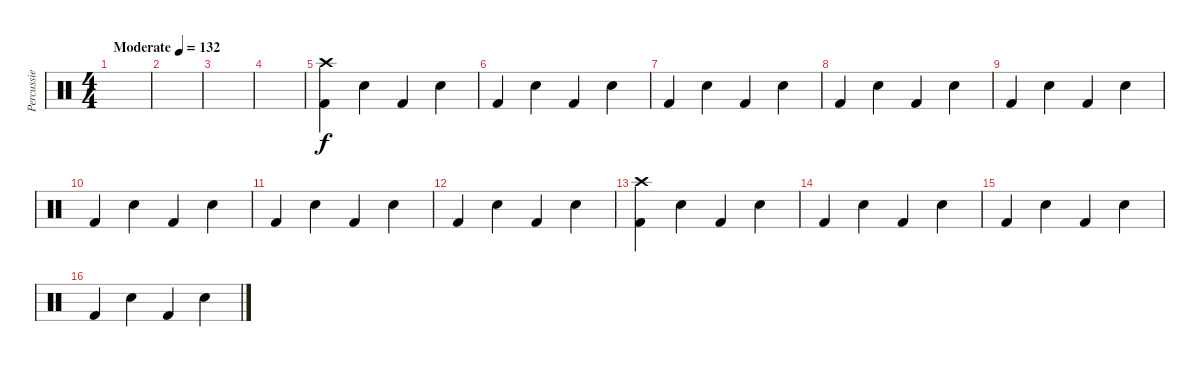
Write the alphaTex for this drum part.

\track ("Percussie" "Percussie") {instrument percussion}
\staff {score}
\articulation defaults
\ts (4 4)
\tempo (132 "Moderate")
\clef neutral
\ks c
|
|
|
|
("Crash high (hit)" "Kick (hit) 2").4 "Electric Snare (hit)".4 "Kick (hit) 2".4 "Electric Snare (hit)".4 |
"Kick (hit) 2".4 "Electric Snare (hit)".4 "Kick (hit) 2".4 "Electric Snare (hit)".4 |
"Kick (hit) 2".4 "Electric Snare (hit)".4 "Kick (hit) 2".4 "Electric Snare (hit)".4 |
"Kick (hit) 2".4 "Electric Snare (hit)".4 "Kick (hit) 2".4 "Electric Snare (hit)".4 |
"Kick (hit) 2".4 "Electric Snare (hit)".4 "Kick (hit) 2".4 "Electric Snare (hit)".4 |
"Kick (hit) 2".4 "Electric Snare (hit)".4 "Kick (hit) 2".4 "Electric Snare (hit)".4 |
"Kick (hit) 2".4 "Electric Snare (hit)".4 "Kick (hit) 2".4 "Electric Snare (hit)".4 |
"Kick (hit) 2".4 "Electric Snare (hit)".4 "Kick (hit) 2".4 "Electric Snare (hit)".4 |
("Crash high (hit)" "Kick (hit) 2").4 "Electric Snare (hit)".4 "Kick (hit) 2".4 "Electric Snare (hit)".4 |
"Kick (hit) 2".4 "Electric Snare (hit)".4 "Kick (hit) 2".4 "Electric Snare (hit)".4 |
"Kick (hit) 2".4 "Electric Snare (hit)".4 "Kick (hit) 2".4 "Electric Snare (hit)".4 |
"Kick (hit) 2".4 "Electric Snare (hit)".4 "Kick (hit) 2".4 "Electric Snare (hit)".4
